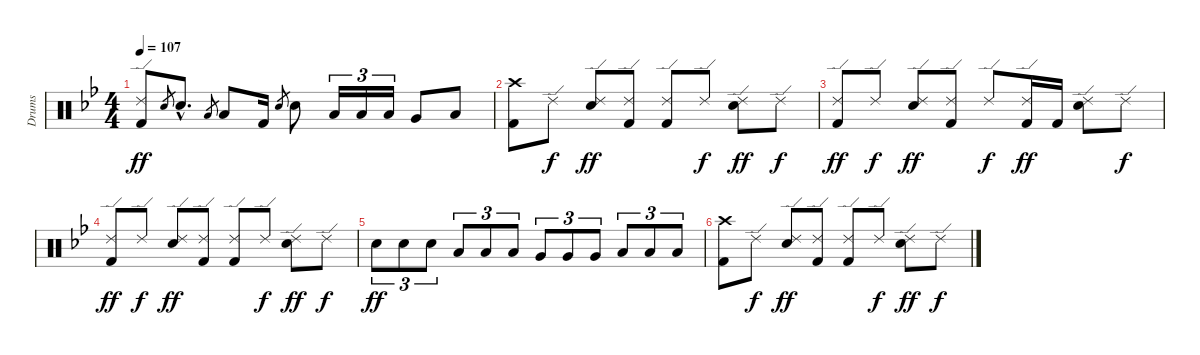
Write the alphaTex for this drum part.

\track ("Drums" "Drums") {instrument percussion}
\staff {score}
\articulation defaults
\ts (4 4)
\tempo 107
\clef neutral
\ks gminor
("Ride (edge) 2" "Kick (hit) 2").8{dy ff} "Snare (hit) 2".8{gr} "Snare (hit) 2"{hac}.8{d} "Low Tom (hit)".8{gr} "Low Tom (hit)".8 "Kick (hit) 2".16 "Snare (hit) 2".8{gr} "Snare (hit) 2".8 "Low Tom (hit)".16{tu (3 2)} "Low Tom (hit)".16{tu (3 2)} "Low Tom (hit)".16{tu (3 2)} "Very Low Tom (hit)".8 "Low Floor Tom (hit)".8 |
("Crash high (hit)" "Kick (hit) 2").8 "Ride (edge) 2".8{dy f} ("Ride (edge) 2" "Snare (hit) 2").8{dy ff} ("Ride (edge) 2" "Kick (hit) 2").8 ("Ride (edge) 2" "Kick (hit) 2").8 "Ride (edge) 2".8{dy f} ("Ride (edge) 2" "Snare (hit) 2").8{dy ff} "Ride (edge) 2".8{dy f} |
("Ride (edge) 2" "Kick (hit) 2").8{dy ff} "Ride (edge) 2".8{dy f} ("Ride (edge) 2" "Snare (hit) 2").8{dy ff} ("Ride (edge) 2" "Kick (hit) 2").8 "Ride (edge) 2".8{dy f} ("Ride (edge) 2" "Kick (hit) 2").16{dy ff} "Kick (hit) 2".16 ("Ride (edge) 2" "Snare (hit) 2").8 "Ride (edge) 2".8{dy f} |
("Ride (edge) 2" "Kick (hit) 2").8{dy ff} "Ride (edge) 2".8{dy f} ("Ride (edge) 2" "Snare (hit) 2").8{dy ff} ("Ride (edge) 2" "Kick (hit) 2").8 ("Ride (edge) 2" "Kick (hit) 2").8 "Ride (edge) 2".8{dy f} ("Ride (edge) 2" "Snare (hit) 2").8{dy ff} "Ride (edge) 2".8{dy f} |
"Snare (hit) 2".8{tu (3 2) dy ff} "Snare (hit) 2".8{tu (3 2)} "Snare (hit) 2".8{tu (3 2)} "Low Tom (hit)".8{tu (3 2)} "Low Tom (hit)".8{tu (3 2)} "Low Tom (hit)".8{tu (3 2)} "Very Low Tom (hit)".8{tu (3 2)} "Very Low Tom (hit)".8{tu (3 2)} "Very Low Tom (hit)".8{tu (3 2)} "Low Floor Tom (hit)".8{tu (3 2)} "Low Floor Tom (hit)".8{tu (3 2)} "Low Floor Tom (hit)".8{tu (3 2)} |
("Crash high (hit)" "Kick (hit) 2").8 "Ride (edge) 2".8{dy f} ("Ride (edge) 2" "Snare (hit) 2").8{dy ff} ("Ride (edge) 2" "Kick (hit) 2").8 ("Ride (edge) 2" "Kick (hit) 2").8 "Ride (edge) 2".8{dy f} ("Ride (edge) 2" "Snare (hit) 2").8{dy ff} "Ride (edge) 2".8{dy f}
